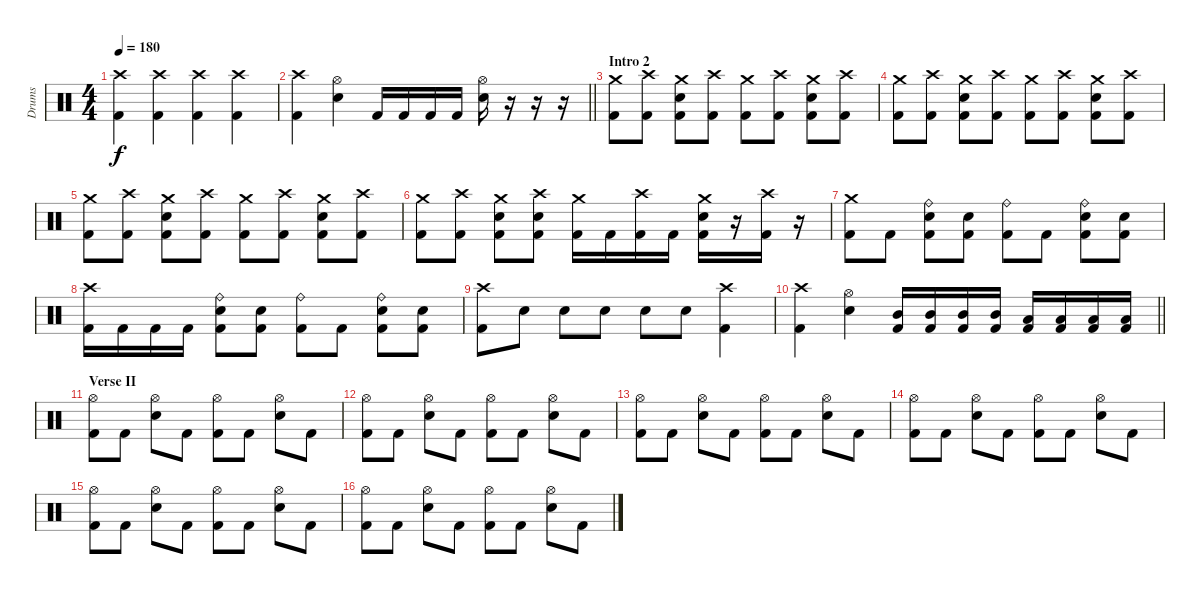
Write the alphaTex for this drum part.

\track ("Drums" "Drums") {instrument percussion}
\staff {score}
\articulation defaults
\ts (4 4)
\tempo 180
\clef neutral
\ks c
("Crash high (hit)" "Kick (hit) 2").4{dy f} ("Crash high (hit)" "Kick (hit) 2").4 ("Crash high (hit)" "Kick (hit) 2").4 ("Crash high (hit)" "Kick (hit) 2").4 |
\barLineRight lightlight
("Crash high (hit)" "Kick (hit) 2").4 ("Hi-Hat (open)" "Electric Snare (hit)").4 "Kick (hit) 2".16 "Kick (hit) 2".16 "Kick (hit) 2".16 "Kick (hit) 2".16 ("Hi-Hat (open)" "Electric Snare (hit)").16 r.16 r.16 r.16 |
\section ("" "Intro 2")
("Crash medium (hit)" "Kick (hit) 2").8 ("Crash high (hit)" "Kick (hit) 2").8 ("Crash medium (hit)" "Electric Snare (hit)" "Kick (hit) 2").8 ("Crash high (hit)" "Kick (hit) 2").8 ("Crash medium (hit)" "Kick (hit) 2").8 ("Crash high (hit)" "Kick (hit) 2").8 ("Crash medium (hit)" "Electric Snare (hit)" "Kick (hit) 2").8 ("Crash high (hit)" "Kick (hit) 2").8 |
("Crash medium (hit)" "Kick (hit) 2").8 ("Crash high (hit)" "Kick (hit) 2").8 ("Crash medium (hit)" "Electric Snare (hit)" "Kick (hit) 2").8 ("Crash high (hit)" "Kick (hit) 2").8 ("Crash medium (hit)" "Kick (hit) 2").8 ("Crash high (hit)" "Kick (hit) 2").8 ("Crash medium (hit)" "Electric Snare (hit)" "Kick (hit) 2").8 ("Crash high (hit)" "Kick (hit) 2").8 |
("Crash medium (hit)" "Kick (hit) 2").8 ("Crash high (hit)" "Kick (hit) 2").8 ("Crash medium (hit)" "Electric Snare (hit)" "Kick (hit) 2").8 ("Crash high (hit)" "Kick (hit) 2").8 ("Crash medium (hit)" "Kick (hit) 2").8 ("Crash high (hit)" "Kick (hit) 2").8 ("Crash medium (hit)" "Electric Snare (hit)" "Kick (hit) 2").8 ("Crash high (hit)" "Kick (hit) 2").8 |
("Crash medium (hit)" "Kick (hit) 2").8 ("Crash high (hit)" "Kick (hit) 2").8 ("Crash medium (hit)" "Electric Snare (hit)" "Kick (hit) 2").8 ("Crash high (hit)" "Electric Snare (hit)" "Kick (hit) 2").8 ("Crash medium (hit)" "Kick (hit) 2").16 "Kick (hit) 2".16 ("Crash high (hit)" "Kick (hit) 2").16 "Kick (hit) 2".16 ("Crash medium (hit)" "Electric Snare (hit)" "Kick (hit) 2").16 r.16 ("Crash high (hit)" "Kick (hit) 2").16 r.16 |
("Crash medium (hit)" "Kick (hit) 2").8 "Kick (hit) 2".8 ("Ride (bell)" "Electric Snare (hit)" "Kick (hit) 2").8 ("Electric Snare (hit)" "Kick (hit) 2").8 ("Ride (bell)" "Kick (hit) 2").8 "Kick (hit) 2".8 ("Ride (bell)" "Electric Snare (hit)" "Kick (hit) 2").8 ("Electric Snare (hit)" "Kick (hit) 2").8 |
("Crash high (hit)" "Kick (hit) 2").16 "Kick (hit) 2".16 "Kick (hit) 2".16 "Kick (hit) 2".16 ("Ride (bell)" "Electric Snare (hit)" "Kick (hit) 2").8 ("Electric Snare (hit)" "Kick (hit) 2").8 ("Ride (bell)" "Kick (hit) 2").8 "Kick (hit) 2".8 ("Ride (bell)" "Electric Snare (hit)" "Kick (hit) 2").8 ("Electric Snare (hit)" "Kick (hit) 2").8 |
("Crash high (hit)" "Kick (hit) 2").8 "Electric Snare (hit)".8 "Electric Snare (hit)".8 "Electric Snare (hit)".8 "Electric Snare (hit)".8 "Electric Snare (hit)".8 ("Crash high (hit)" "Kick (hit) 2").4 |
\barLineRight lightlight
("Crash high (hit)" "Kick (hit) 2").4 ("Hi-Hat (open)" "Electric Snare (hit)").4 ("Mid Tom (hit)" "Kick (hit) 2").16 ("Mid Tom (hit)" "Kick (hit) 2").16 ("Mid Tom (hit)" "Kick (hit) 2").16 ("Mid Tom (hit)" "Kick (hit) 2").16 ("Low Tom (hit)" "Kick (hit) 2").16 ("Low Tom (hit)" "Kick (hit) 2").16 ("Low Tom (hit)" "Kick (hit) 2").16 ("Low Tom (hit)" "Kick (hit) 2").16 |
\section ("" "Verse II")
("Hi-Hat (open)" "Kick (hit) 2").8 "Kick (hit) 2".8 ("Hi-Hat (open)" "Electric Snare (hit)").8 "Kick (hit) 2".8 ("Hi-Hat (open)" "Kick (hit) 2").8 "Kick (hit) 2".8 ("Hi-Hat (open)" "Electric Snare (hit)").8 "Kick (hit) 2".8 |
("Hi-Hat (open)" "Kick (hit) 2").8 "Kick (hit) 2".8 ("Hi-Hat (open)" "Electric Snare (hit)").8 "Kick (hit) 2".8 ("Hi-Hat (open)" "Kick (hit) 2").8 "Kick (hit) 2".8 ("Hi-Hat (open)" "Electric Snare (hit)").8 "Kick (hit) 2".8 |
("Hi-Hat (open)" "Kick (hit) 2").8 "Kick (hit) 2".8 ("Hi-Hat (open)" "Electric Snare (hit)").8 "Kick (hit) 2".8 ("Hi-Hat (open)" "Kick (hit) 2").8 "Kick (hit) 2".8 ("Hi-Hat (open)" "Electric Snare (hit)").8 "Kick (hit) 2".8 |
("Hi-Hat (open)" "Kick (hit) 2").8 "Kick (hit) 2".8 ("Hi-Hat (open)" "Electric Snare (hit)").8 "Kick (hit) 2".8 ("Hi-Hat (open)" "Kick (hit) 2").8 "Kick (hit) 2".8 ("Hi-Hat (open)" "Electric Snare (hit)").8 "Kick (hit) 2".8 |
("Hi-Hat (open)" "Kick (hit) 2").8 "Kick (hit) 2".8 ("Hi-Hat (open)" "Electric Snare (hit)").8 "Kick (hit) 2".8 ("Hi-Hat (open)" "Kick (hit) 2").8 "Kick (hit) 2".8 ("Hi-Hat (open)" "Electric Snare (hit)").8 "Kick (hit) 2".8 |
("Hi-Hat (open)" "Kick (hit) 2").8 "Kick (hit) 2".8 ("Hi-Hat (open)" "Electric Snare (hit)").8 "Kick (hit) 2".8 ("Hi-Hat (open)" "Kick (hit) 2").8 "Kick (hit) 2".8 ("Hi-Hat (open)" "Electric Snare (hit)").8 "Kick (hit) 2".8
